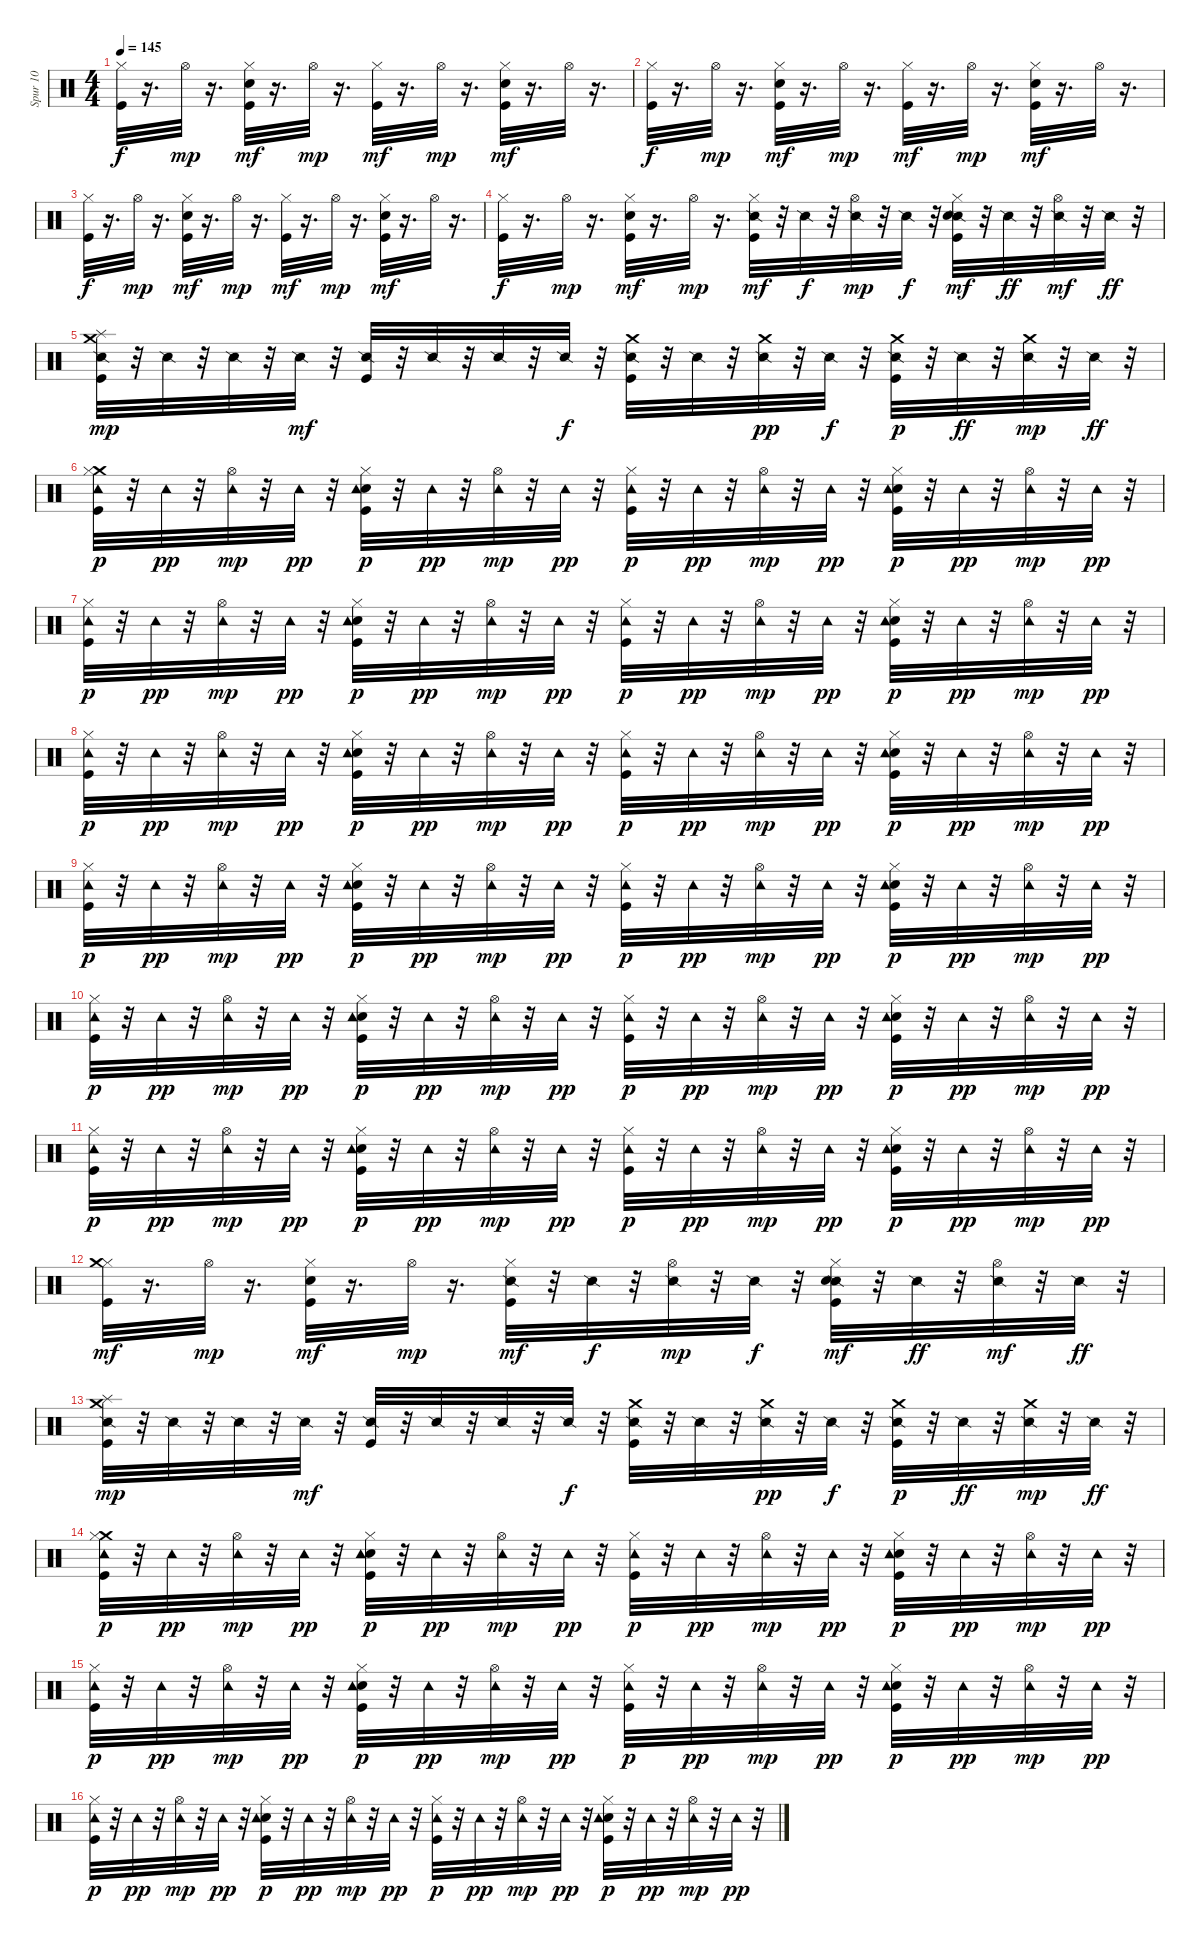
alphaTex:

\track ("Spur 10" "Spur 10") {instrument percussion}
\staff {score}
\articulation defaults
\ts (4 4)
\tempo 145
\clef neutral
\ks c
("Kick (hit)" "Hi-Hat (closed)").32{dy f} r.16{d} "Hi-Hat (open)".32{dy mp} r.16{d} ("Kick (hit)" "Snare (hit) 2" "Hi-Hat (closed)").32{dy mf} r.16{d} "Hi-Hat (open)".32{dy mp} r.16{d} ("Kick (hit)" "Hi-Hat (closed)").32{dy mf} r.16{d} "Hi-Hat (open)".32{dy mp} r.16{d} ("Kick (hit)" "Snare (hit) 2" "Hi-Hat (closed)").32{dy mf} r.16{d} "Hi-Hat (open)".32 r.16{d} |
("Kick (hit)" "Hi-Hat (closed)").32{dy f} r.16{d} "Hi-Hat (open)".32{dy mp} r.16{d} ("Kick (hit)" "Snare (hit) 2" "Hi-Hat (closed)").32{dy mf} r.16{d} "Hi-Hat (open)".32{dy mp} r.16{d} ("Kick (hit)" "Hi-Hat (closed)").32{dy mf} r.16{d} "Hi-Hat (open)".32{dy mp} r.16{d} ("Kick (hit)" "Snare (hit) 2" "Hi-Hat (closed)").32{dy mf} r.16{d} "Hi-Hat (open)".32 r.16{d} |
("Kick (hit)" "Hi-Hat (closed)").32{dy f} r.16{d} "Hi-Hat (open)".32{dy mp} r.16{d} ("Kick (hit)" "Snare (hit) 2" "Hi-Hat (closed)").32{dy mf} r.16{d} "Hi-Hat (open)".32{dy mp} r.16{d} ("Kick (hit)" "Hi-Hat (closed)").32{dy mf} r.16{d} "Hi-Hat (open)".32{dy mp} r.16{d} ("Kick (hit)" "Snare (hit) 2" "Hi-Hat (closed)").32{dy mf} r.16{d} "Hi-Hat (open)".32 r.16{d} |
("Kick (hit)" "Hi-Hat (closed)").32{dy f} r.16{d} "Hi-Hat (open)".32{dy mp} r.16{d} ("Kick (hit)" "Snare (hit) 2" "Hi-Hat (closed)").32{dy mf} r.16{d} "Hi-Hat (open)".32{dy mp} r.16{d} ("Snare (side stick) 2" "Kick (hit)" "Hi-Hat (closed)").32{dy mf} r.32 "Snare (side stick) 2".32{dy f} r.32 ("Snare (side stick) 2" "Hi-Hat (open)").32{dy mp balance 11} r.32 "Snare (side stick) 2".32{dy f} r.32 ("Snare (side stick) 2" "Kick (hit)" "Snare (hit) 2" "Hi-Hat (closed)").32{dy mf balance 8} r.32 "Snare (side stick) 2".32{dy ff} r.32 ("Snare (side stick) 2" "Hi-Hat (open)").32{dy mf balance 4} r.32 "Snare (side stick) 2".32{dy ff} r.32 |
("Crash medium (hit)" "Snare (side stick) 2" "Kick (hit)" "Splash (hit)").32{dy mp balance 8} r.32 "Snare (side stick) 2".32 r.32 "Snare (side stick) 2".32 r.32 "Snare (side stick) 2".32{dy mf} r.32 ("Snare (side stick) 2" "Kick (hit)").32 r.32 "Snare (side stick) 2".32 r.32 "Snare (side stick) 2".32 r.32 "Snare (side stick) 2".32{dy f} r.32 ("Snare (side stick) 2" "Kick (hit)" "Crash medium (hit)").32{balance 10} r.32 "Snare (side stick) 2".32 r.32 ("Snare (side stick) 2" "Crash medium (hit)").32{dy pp balance 14} r.32 "Snare (side stick) 2".32{dy f} r.32 ("Snare (side stick) 2" "Kick (hit)" "Crash medium (hit)").32{dy p balance 7} r.32 "Snare (side stick) 2".32{dy ff} r.32 ("Snare (side stick) 2" "Crash medium (hit)").32{dy mp balance 0} r.32 "Snare (side stick) 2".32{dy ff} r.32 |
("Crash medium (hit)" "Kick (hit)" "Hi-Hat (closed)" "Tambourine (hit)").32{dy p balance 8} r.32 "Tambourine (hit)".32{dy pp} r.32 ("Hi-Hat (open)" "Tambourine (hit)").32{dy mp} r.32 "Tambourine (hit)".32{dy pp} r.32 ("Kick (hit)" "Snare (hit) 2" "Hi-Hat (closed)" "Tambourine (hit)").32{dy p} r.32 "Tambourine (hit)".32{dy pp} r.32 ("Hi-Hat (open)" "Tambourine (hit)").32{dy mp} r.32 "Tambourine (hit)".32{dy pp} r.32 ("Kick (hit)" "Hi-Hat (closed)" "Tambourine (hit)").32{dy p} r.32 "Tambourine (hit)".32{dy pp} r.32 ("Hi-Hat (open)" "Tambourine (hit)").32{dy mp} r.32 "Tambourine (hit)".32{dy pp} r.32 ("Kick (hit)" "Snare (hit) 2" "Hi-Hat (closed)" "Tambourine (hit)").32{dy p} r.32 "Tambourine (hit)".32{dy pp} r.32 ("Hi-Hat (open)" "Tambourine (hit)").32{dy mp} r.32 "Tambourine (hit)".32{dy pp} r.32 |
("Kick (hit)" "Hi-Hat (closed)" "Tambourine (hit)").32{dy p} r.32 "Tambourine (hit)".32{dy pp} r.32 ("Hi-Hat (open)" "Tambourine (hit)").32{dy mp} r.32 "Tambourine (hit)".32{dy pp} r.32 ("Kick (hit)" "Snare (hit) 2" "Hi-Hat (closed)" "Tambourine (hit)").32{dy p} r.32 "Tambourine (hit)".32{dy pp} r.32 ("Hi-Hat (open)" "Tambourine (hit)").32{dy mp} r.32 "Tambourine (hit)".32{dy pp} r.32 ("Kick (hit)" "Hi-Hat (closed)" "Tambourine (hit)").32{dy p} r.32 "Tambourine (hit)".32{dy pp} r.32 ("Hi-Hat (open)" "Tambourine (hit)").32{dy mp} r.32 "Tambourine (hit)".32{dy pp} r.32 ("Kick (hit)" "Snare (hit) 2" "Hi-Hat (closed)" "Tambourine (hit)").32{dy p} r.32 "Tambourine (hit)".32{dy pp} r.32 ("Hi-Hat (open)" "Tambourine (hit)").32{dy mp} r.32 "Tambourine (hit)".32{dy pp} r.32 |
("Kick (hit)" "Hi-Hat (closed)" "Tambourine (hit)").32{dy p} r.32 "Tambourine (hit)".32{dy pp} r.32 ("Hi-Hat (open)" "Tambourine (hit)").32{dy mp} r.32 "Tambourine (hit)".32{dy pp} r.32 ("Kick (hit)" "Snare (hit) 2" "Hi-Hat (closed)" "Tambourine (hit)").32{dy p} r.32 "Tambourine (hit)".32{dy pp} r.32 ("Hi-Hat (open)" "Tambourine (hit)").32{dy mp} r.32 "Tambourine (hit)".32{dy pp} r.32 ("Kick (hit)" "Hi-Hat (closed)" "Tambourine (hit)").32{dy p} r.32 "Tambourine (hit)".32{dy pp} r.32 ("Hi-Hat (open)" "Tambourine (hit)").32{dy mp} r.32 "Tambourine (hit)".32{dy pp} r.32 ("Kick (hit)" "Snare (hit) 2" "Hi-Hat (closed)" "Tambourine (hit)").32{dy p} r.32 "Tambourine (hit)".32{dy pp} r.32 ("Hi-Hat (open)" "Tambourine (hit)").32{dy mp} r.32 "Tambourine (hit)".32{dy pp} r.32 |
("Kick (hit)" "Hi-Hat (closed)" "Tambourine (hit)").32{dy p} r.32 "Tambourine (hit)".32{dy pp} r.32 ("Hi-Hat (open)" "Tambourine (hit)").32{dy mp} r.32 "Tambourine (hit)".32{dy pp} r.32 ("Kick (hit)" "Snare (hit) 2" "Hi-Hat (closed)" "Tambourine (hit)").32{dy p} r.32 "Tambourine (hit)".32{dy pp} r.32 ("Hi-Hat (open)" "Tambourine (hit)").32{dy mp} r.32 "Tambourine (hit)".32{dy pp} r.32 ("Kick (hit)" "Hi-Hat (closed)" "Tambourine (hit)").32{dy p} r.32 "Tambourine (hit)".32{dy pp} r.32 ("Hi-Hat (open)" "Tambourine (hit)").32{dy mp} r.32 "Tambourine (hit)".32{dy pp} r.32 ("Kick (hit)" "Snare (hit) 2" "Hi-Hat (closed)" "Tambourine (hit)").32{dy p} r.32 "Tambourine (hit)".32{dy pp} r.32 ("Hi-Hat (open)" "Tambourine (hit)").32{dy mp} r.32 "Tambourine (hit)".32{dy pp} r.32 |
("Kick (hit)" "Hi-Hat (closed)" "Tambourine (hit)").32{dy p} r.32 "Tambourine (hit)".32{dy pp} r.32 ("Hi-Hat (open)" "Tambourine (hit)").32{dy mp} r.32 "Tambourine (hit)".32{dy pp} r.32 ("Kick (hit)" "Snare (hit) 2" "Hi-Hat (closed)" "Tambourine (hit)").32{dy p} r.32 "Tambourine (hit)".32{dy pp} r.32 ("Hi-Hat (open)" "Tambourine (hit)").32{dy mp} r.32 "Tambourine (hit)".32{dy pp} r.32 ("Kick (hit)" "Hi-Hat (closed)" "Tambourine (hit)").32{dy p} r.32 "Tambourine (hit)".32{dy pp} r.32 ("Hi-Hat (open)" "Tambourine (hit)").32{dy mp} r.32 "Tambourine (hit)".32{dy pp} r.32 ("Kick (hit)" "Snare (hit) 2" "Hi-Hat (closed)" "Tambourine (hit)").32{dy p} r.32 "Tambourine (hit)".32{dy pp} r.32 ("Hi-Hat (open)" "Tambourine (hit)").32{dy mp} r.32 "Tambourine (hit)".32{dy pp} r.32 |
("Kick (hit)" "Hi-Hat (closed)" "Tambourine (hit)").32{dy p} r.32 "Tambourine (hit)".32{dy pp} r.32 ("Hi-Hat (open)" "Tambourine (hit)").32{dy mp} r.32 "Tambourine (hit)".32{dy pp} r.32 ("Kick (hit)" "Snare (hit) 2" "Hi-Hat (closed)" "Tambourine (hit)").32{dy p} r.32 "Tambourine (hit)".32{dy pp} r.32 ("Hi-Hat (open)" "Tambourine (hit)").32{dy mp} r.32 "Tambourine (hit)".32{dy pp} r.32 ("Kick (hit)" "Hi-Hat (closed)" "Tambourine (hit)").32{dy p} r.32 "Tambourine (hit)".32{dy pp} r.32 ("Hi-Hat (open)" "Tambourine (hit)").32{dy mp} r.32 "Tambourine (hit)".32{dy pp} r.32 ("Kick (hit)" "Snare (hit) 2" "Hi-Hat (closed)" "Tambourine (hit)").32{dy p} r.32 "Tambourine (hit)".32{dy pp} r.32 ("Hi-Hat (open)" "Tambourine (hit)").32{dy mp} r.32 "Tambourine (hit)".32{dy pp} r.32 |
("Kick (hit)" "Hi-Hat (closed)" "Crash medium (hit)").32{dy mf} r.16{d} "Hi-Hat (open)".32{dy mp} r.16{d} ("Kick (hit)" "Snare (hit) 2" "Hi-Hat (closed)").32{dy mf} r.16{d} "Hi-Hat (open)".32{dy mp} r.16{d} ("Snare (side stick) 2" "Kick (hit)" "Hi-Hat (closed)").32{dy mf} r.32 "Snare (side stick) 2".32{dy f} r.32 ("Snare (side stick) 2" "Hi-Hat (open)").32{dy mp balance 11} r.32 "Snare (side stick) 2".32{dy f} r.32 ("Snare (side stick) 2" "Kick (hit)" "Snare (hit) 2" "Hi-Hat (closed)").32{dy mf balance 8} r.32 "Snare (side stick) 2".32{dy ff} r.32 ("Snare (side stick) 2" "Hi-Hat (open)").32{dy mf balance 4} r.32 "Snare (side stick) 2".32{dy ff} r.32 |
("Crash medium (hit)" "Snare (side stick) 2" "Kick (hit)" "Splash (hit)").32{dy mp balance 8} r.32 "Snare (side stick) 2".32 r.32 "Snare (side stick) 2".32 r.32 "Snare (side stick) 2".32{dy mf} r.32 ("Snare (side stick) 2" "Kick (hit)").32 r.32 "Snare (side stick) 2".32 r.32 "Snare (side stick) 2".32 r.32 "Snare (side stick) 2".32{dy f} r.32 ("Snare (side stick) 2" "Kick (hit)" "Crash medium (hit)").32{balance 10} r.32 "Snare (side stick) 2".32 r.32 ("Snare (side stick) 2" "Crash medium (hit)").32{dy pp balance 14} r.32 "Snare (side stick) 2".32{dy f} r.32 ("Snare (side stick) 2" "Kick (hit)" "Crash medium (hit)").32{dy p balance 7} r.32 "Snare (side stick) 2".32{dy ff} r.32 ("Snare (side stick) 2" "Crash medium (hit)").32{dy mp balance 0} r.32 "Snare (side stick) 2".32{dy ff} r.32 |
("Crash medium (hit)" "Kick (hit)" "Hi-Hat (closed)" "Tambourine (hit)").32{dy p balance 8} r.32 "Tambourine (hit)".32{dy pp} r.32 ("Hi-Hat (open)" "Tambourine (hit)").32{dy mp} r.32 "Tambourine (hit)".32{dy pp} r.32 ("Kick (hit)" "Snare (hit) 2" "Hi-Hat (closed)" "Tambourine (hit)").32{dy p} r.32 "Tambourine (hit)".32{dy pp} r.32 ("Hi-Hat (open)" "Tambourine (hit)").32{dy mp} r.32 "Tambourine (hit)".32{dy pp} r.32 ("Kick (hit)" "Hi-Hat (closed)" "Tambourine (hit)").32{dy p} r.32 "Tambourine (hit)".32{dy pp} r.32 ("Hi-Hat (open)" "Tambourine (hit)").32{dy mp} r.32 "Tambourine (hit)".32{dy pp} r.32 ("Kick (hit)" "Snare (hit) 2" "Hi-Hat (closed)" "Tambourine (hit)").32{dy p} r.32 "Tambourine (hit)".32{dy pp} r.32 ("Hi-Hat (open)" "Tambourine (hit)").32{dy mp} r.32 "Tambourine (hit)".32{dy pp} r.32 |
("Kick (hit)" "Hi-Hat (closed)" "Tambourine (hit)").32{dy p} r.32 "Tambourine (hit)".32{dy pp} r.32 ("Hi-Hat (open)" "Tambourine (hit)").32{dy mp} r.32 "Tambourine (hit)".32{dy pp} r.32 ("Kick (hit)" "Snare (hit) 2" "Hi-Hat (closed)" "Tambourine (hit)").32{dy p} r.32 "Tambourine (hit)".32{dy pp} r.32 ("Hi-Hat (open)" "Tambourine (hit)").32{dy mp} r.32 "Tambourine (hit)".32{dy pp} r.32 ("Kick (hit)" "Hi-Hat (closed)" "Tambourine (hit)").32{dy p} r.32 "Tambourine (hit)".32{dy pp} r.32 ("Hi-Hat (open)" "Tambourine (hit)").32{dy mp} r.32 "Tambourine (hit)".32{dy pp} r.32 ("Kick (hit)" "Snare (hit) 2" "Hi-Hat (closed)" "Tambourine (hit)").32{dy p} r.32 "Tambourine (hit)".32{dy pp} r.32 ("Hi-Hat (open)" "Tambourine (hit)").32{dy mp} r.32 "Tambourine (hit)".32{dy pp} r.32 |
("Kick (hit)" "Hi-Hat (closed)" "Tambourine (hit)").32{dy p} r.32 "Tambourine (hit)".32{dy pp} r.32 ("Hi-Hat (open)" "Tambourine (hit)").32{dy mp} r.32 "Tambourine (hit)".32{dy pp} r.32 ("Kick (hit)" "Snare (hit) 2" "Hi-Hat (closed)" "Tambourine (hit)").32{dy p} r.32 "Tambourine (hit)".32{dy pp} r.32 ("Hi-Hat (open)" "Tambourine (hit)").32{dy mp} r.32 "Tambourine (hit)".32{dy pp} r.32 ("Kick (hit)" "Hi-Hat (closed)" "Tambourine (hit)").32{dy p} r.32 "Tambourine (hit)".32{dy pp} r.32 ("Hi-Hat (open)" "Tambourine (hit)").32{dy mp} r.32 "Tambourine (hit)".32{dy pp} r.32 ("Kick (hit)" "Snare (hit) 2" "Hi-Hat (closed)" "Tambourine (hit)").32{dy p} r.32 "Tambourine (hit)".32{dy pp} r.32 ("Hi-Hat (open)" "Tambourine (hit)").32{dy mp} r.32 "Tambourine (hit)".32{dy pp} r.32
